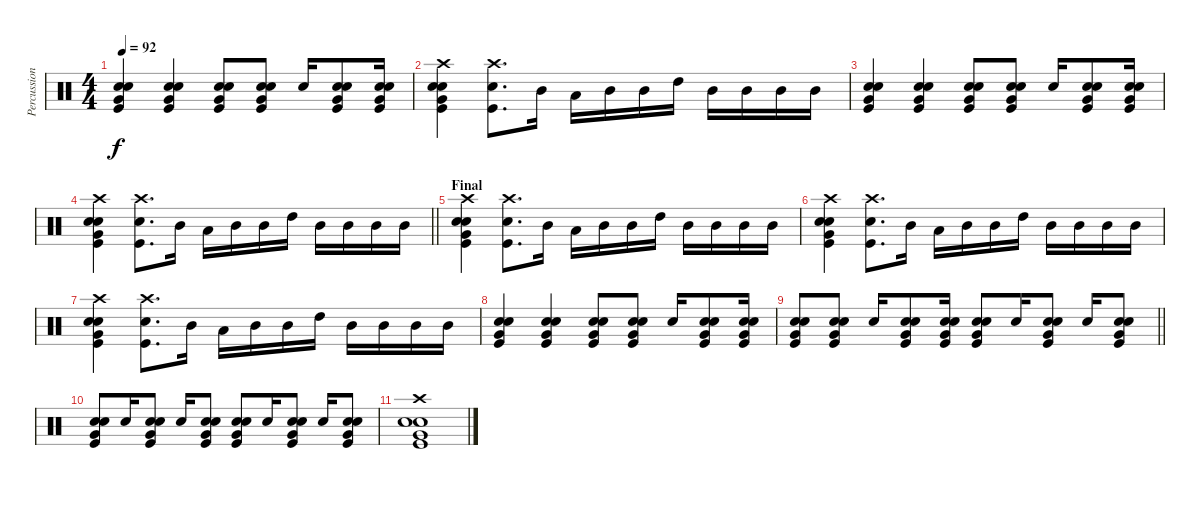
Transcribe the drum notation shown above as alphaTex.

\track ("Percussions" "Percussion") {instrument percussion}
\staff {score}
\articulation defaults
\ts (4 4)
\tempo 92
\clef neutral
\ks c
("Kick (hit)" "Snare (hit) 2" "Electric Snare (hit)" "Very Low Tom (hit)").4{dy f} ("Kick (hit)" "Snare (hit) 2" "Electric Snare (hit)" "Very Low Tom (hit)").4 ("Kick (hit)" "Snare (hit) 2" "Electric Snare (hit)" "Very Low Tom (hit)").8 ("Kick (hit)" "Snare (hit) 2" "Electric Snare (hit)" "Very Low Tom (hit)").8 "Snare (hit) 2".16 ("Kick (hit)" "Snare (hit) 2" "Electric Snare (hit)" "Very Low Tom (hit)").8 ("Kick (hit)" "Snare (hit) 2" "Electric Snare (hit)" "Very Low Tom (hit)").16 |
("Kick (hit)" "Snare (hit) 2" "Crash high (hit)" "Electric Snare (hit)" "Very Low Tom (hit)").4 ("Kick (hit)" "Snare (hit) 2" "Crash high (hit)").8{d} "Mid Tom (hit)".16 "Low Tom (hit)".16 "Mid Tom (hit)".16 "Mid Tom (hit)".16 "High Tom (hit)".16 "Mid Tom (hit)".16 "Mid Tom (hit)".16 "Mid Tom (hit)".16 "Mid Tom (hit)".16 |
("Kick (hit)" "Snare (hit) 2" "Electric Snare (hit)" "Very Low Tom (hit)").4 ("Kick (hit)" "Snare (hit) 2" "Electric Snare (hit)" "Very Low Tom (hit)").4 ("Kick (hit)" "Snare (hit) 2" "Electric Snare (hit)" "Very Low Tom (hit)").8 ("Kick (hit)" "Snare (hit) 2" "Electric Snare (hit)" "Very Low Tom (hit)").8 "Snare (hit) 2".16 ("Kick (hit)" "Snare (hit) 2" "Electric Snare (hit)" "Very Low Tom (hit)").8 ("Kick (hit)" "Snare (hit) 2" "Electric Snare (hit)" "Very Low Tom (hit)").16 |
\barLineRight lightlight
("Kick (hit)" "Snare (hit) 2" "Crash high (hit)" "Electric Snare (hit)" "Very Low Tom (hit)").4 ("Kick (hit)" "Snare (hit) 2" "Crash high (hit)").8{d} "Mid Tom (hit)".16 "Low Tom (hit)".16 "Mid Tom (hit)".16 "Mid Tom (hit)".16 "High Tom (hit)".16 "Mid Tom (hit)".16 "Mid Tom (hit)".16 "Mid Tom (hit)".16 "Mid Tom (hit)".16 |
\section ("" "Final")
("Kick (hit)" "Snare (hit) 2" "Crash high (hit)" "Electric Snare (hit)" "Very Low Tom (hit)").4 ("Kick (hit)" "Snare (hit) 2" "Crash high (hit)").8{d} "Mid Tom (hit)".16 "Low Tom (hit)".16 "Mid Tom (hit)".16 "Mid Tom (hit)".16 "High Tom (hit)".16 "Mid Tom (hit)".16 "Mid Tom (hit)".16 "Mid Tom (hit)".16 "Mid Tom (hit)".16 |
("Kick (hit)" "Snare (hit) 2" "Crash high (hit)" "Electric Snare (hit)" "Very Low Tom (hit)").4 ("Kick (hit)" "Snare (hit) 2" "Crash high (hit)").8{d} "Mid Tom (hit)".16 "Low Tom (hit)".16 "Mid Tom (hit)".16 "Mid Tom (hit)".16 "High Tom (hit)".16 "Mid Tom (hit)".16 "Mid Tom (hit)".16 "Mid Tom (hit)".16 "Mid Tom (hit)".16 |
("Kick (hit)" "Snare (hit) 2" "Crash high (hit)" "Electric Snare (hit)" "Very Low Tom (hit)").4 ("Kick (hit)" "Snare (hit) 2" "Crash high (hit)").8{d} "Mid Tom (hit)".16 "Low Tom (hit)".16 "Mid Tom (hit)".16 "Mid Tom (hit)".16 "High Tom (hit)".16 "Mid Tom (hit)".16 "Mid Tom (hit)".16 "Mid Tom (hit)".16 "Mid Tom (hit)".16 |
("Kick (hit)" "Snare (hit) 2" "Electric Snare (hit)" "Very Low Tom (hit)").4 ("Kick (hit)" "Snare (hit) 2" "Electric Snare (hit)" "Very Low Tom (hit)").4 ("Kick (hit)" "Snare (hit) 2" "Electric Snare (hit)" "Very Low Tom (hit)").8 ("Kick (hit)" "Snare (hit) 2" "Electric Snare (hit)" "Very Low Tom (hit)").8 "Snare (hit) 2".16 ("Kick (hit)" "Snare (hit) 2" "Electric Snare (hit)" "Very Low Tom (hit)").8 ("Kick (hit)" "Snare (hit) 2" "Electric Snare (hit)" "Very Low Tom (hit)").16 |
\barLineRight lightlight
("Kick (hit)" "Snare (hit) 2" "Electric Snare (hit)" "Very Low Tom (hit)").8 ("Kick (hit)" "Snare (hit) 2" "Electric Snare (hit)" "Very Low Tom (hit)").8 "Snare (hit) 2".16 ("Kick (hit)" "Snare (hit) 2" "Electric Snare (hit)" "Very Low Tom (hit)").8 ("Kick (hit)" "Snare (hit) 2" "Electric Snare (hit)" "Very Low Tom (hit)").16 ("Kick (hit)" "Snare (hit) 2" "Electric Snare (hit)" "Very Low Tom (hit)").8 "Snare (hit) 2".16 ("Kick (hit)" "Snare (hit) 2" "Electric Snare (hit)" "Very Low Tom (hit)").8 "Snare (hit) 2".16 ("Kick (hit)" "Snare (hit) 2" "Electric Snare (hit)" "Very Low Tom (hit)").8 |
("Kick (hit)" "Snare (hit) 2" "Electric Snare (hit)" "Very Low Tom (hit)").8 "Snare (hit) 2".16 ("Kick (hit)" "Snare (hit) 2" "Electric Snare (hit)" "Very Low Tom (hit)").8 "Snare (hit) 2".16 ("Kick (hit)" "Snare (hit) 2" "Electric Snare (hit)" "Very Low Tom (hit)").8 ("Kick (hit)" "Snare (hit) 2" "Electric Snare (hit)" "Very Low Tom (hit)").8 "Snare (hit) 2".16 ("Kick (hit)" "Snare (hit) 2" "Electric Snare (hit)" "Very Low Tom (hit)").8 "Snare (hit) 2".16 ("Kick (hit)" "Snare (hit) 2" "Electric Snare (hit)" "Very Low Tom (hit)").8 |
("Kick (hit)" "Snare (hit) 2" "Crash high (hit)" "Electric Snare (hit)" "Very Low Tom (hit)").1
